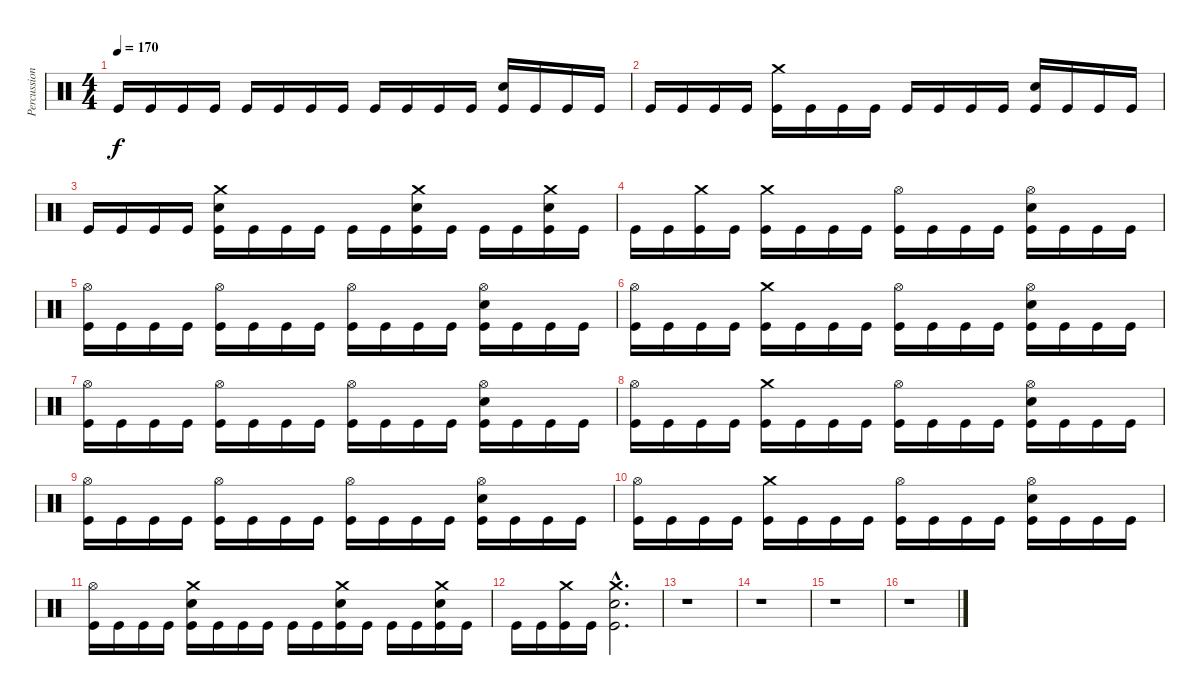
\track ("Percussion" "Percussion") {instrument percussion}
\staff {score}
\articulation defaults
\ts (4 4)
\tempo 170
\clef neutral
\ks c "Kick (hit)".16{dy f} "Kick (hit)".16 "Kick (hit)".16 "Kick (hit)".16 "Kick (hit)".16 "Kick (hit)".16 "Kick (hit)".16 "Kick (hit)".16 "Kick (hit)".16 "Kick (hit)".16 "Kick (hit)".16 "Kick (hit)".16
("Snare (hit) 2" "Kick (hit)").16 "Kick (hit)".16 "Kick (hit)".16 "Kick (hit)".16 |
"Kick (hit)".16 "Kick (hit)".16 "Kick (hit)".16 "Kick (hit)".16 ("Crash medium (hit)" "Kick (hit)").16 "Kick (hit)".16 "Kick (hit)".16 "Kick (hit)".16 "Kick (hit)".16 "Kick (hit)".16 "Kick (hit)".16 "Kick (hit)".16 ("Snare (hit) 2" "Kick (hit)").16 "Kick (hit)".16 "Kick (hit)".16 "Kick (hit)".16 |
"Kick (hit)".16 "Kick (hit)".16 "Kick (hit)".16 "Kick (hit)".16 ("Crash medium (hit)" "Snare (hit) 2" "Kick (hit)").16 "Kick (hit)".16 "Kick (hit)".16 "Kick (hit)".16 "Kick (hit)".16 "Kick (hit)".16 ("Crash medium (hit)" "Snare (hit) 2" "Kick (hit)").16 "Kick (hit)".16 "Kick (hit)".16 "Kick (hit)".16 ("Crash medium (hit)" "Snare (hit) 2" "Kick (hit)").16 "Kick (hit)".16 |
"Kick (hit)".16 "Kick (hit)".16 ("Crash medium (hit)" "Kick (hit)").16 "Kick (hit)".16 ("Crash medium (hit)" "Kick (hit)").16 "Kick (hit)".16 "Kick (hit)".16 "Kick (hit)".16 ("Hi-Hat (open)" "Kick (hit)").16 "Kick (hit)".16 "Kick (hit)".16 "Kick (hit)".16 ("Hi-Hat (open)" "Snare (hit) 2" "Kick (hit)").16 "Kick (hit)".16 "Kick (hit)".16 "Kick (hit)".16 |
("Hi-Hat (open)" "Kick (hit)").16 "Kick (hit)".16 "Kick (hit)".16 "Kick (hit)".16 ("Hi-Hat (open)" "Kick (hit)").16 "Kick (hit)".16 "Kick (hit)".16 "Kick (hit)".16 ("Hi-Hat (open)" "Kick (hit)").16 "Kick (hit)".16 "Kick (hit)".16 "Kick (hit)".16 ("Hi-Hat (open)" "Snare (hit) 2" "Kick (hit)").16 "Kick (hit)".16 "Kick (hit)".16 "Kick (hit)".16 |
("Hi-Hat (open)" "Kick (hit)").16 "Kick (hit)".16 "Kick (hit)".16 "Kick (hit)".16 ("Crash medium (hit)" "Kick (hit)").16 "Kick (hit)".16 "Kick (hit)".16 "Kick (hit)".16 ("Hi-Hat (open)" "Kick (hit)").16 "Kick (hit)".16 "Kick (hit)".16 "Kick (hit)".16 ("Hi-Hat (open)" "Snare (hit) 2" "Kick (hit)").16 "Kick (hit)".16 "Kick (hit)".16 "Kick (hit)".16 |
("Hi-Hat (open)" "Kick (hit)").16 "Kick (hit)".16 "Kick (hit)".16 "Kick (hit)".16 ("Hi-Hat (open)" "Kick (hit)").16 "Kick (hit)".16 "Kick (hit)".16 "Kick (hit)".16 ("Hi-Hat (open)" "Kick (hit)").16 "Kick (hit)".16 "Kick (hit)".16 "Kick (hit)".16 ("Hi-Hat (open)" "Snare (hit) 2" "Kick (hit)").16 "Kick (hit)".16 "Kick (hit)".16 "Kick (hit)".16 |
("Hi-Hat (open)" "Kick (hit)").16 "Kick (hit)".16 "Kick (hit)".16 "Kick (hit)".16 ("Crash medium (hit)" "Kick (hit)").16 "Kick (hit)".16 "Kick (hit)".16 "Kick (hit)".16 ("Hi-Hat (open)" "Kick (hit)").16 "Kick (hit)".16 "Kick (hit)".16 "Kick (hit)".16 ("Hi-Hat (open)" "Snare (hit) 2" "Kick (hit)").16 "Kick (hit)".16 "Kick (hit)".16 "Kick (hit)".16 |
("Hi-Hat (open)" "Kick (hit)").16 "Kick (hit)".16 "Kick (hit)".16 "Kick (hit)".16 ("Hi-Hat (open)" "Kick (hit)").16 "Kick (hit)".16 "Kick (hit)".16 "Kick (hit)".16 ("Hi-Hat (open)" "Kick (hit)").16 "Kick (hit)".16 "Kick (hit)".16 "Kick (hit)".16 ("Hi-Hat (open)" "Snare (hit) 2" "Kick (hit)").16 "Kick (hit)".16 "Kick (hit)".16 "Kick (hit)".16 |
("Hi-Hat (open)" "Kick (hit)").16 "Kick (hit)".16 "Kick (hit)".16 "Kick (hit)".16 ("Crash medium (hit)" "Kick (hit)").16 "Kick (hit)".16 "Kick (hit)".16 "Kick (hit)".16 ("Hi-Hat (open)" "Kick (hit)").16 "Kick (hit)".16 "Kick (hit)".16 "Kick (hit)".16 ("Hi-Hat (open)" "Snare (hit) 2" "Kick (hit)").16 "Kick (hit)".16 "Kick (hit)".16 "Kick (hit)".16 |
("Hi-Hat (open)" "Kick (hit)").16 "Kick (hit)".16 "Kick (hit)".16 "Kick (hit)".16 ("Crash medium (hit)" "Snare (hit) 2" "Kick (hit)").16 "Kick (hit)".16 "Kick (hit)".16 "Kick (hit)".16 "Kick (hit)".16 "Kick (hit)".16 ("Crash medium (hit)" "Snare (hit) 2" "Kick (hit)").16 "Kick (hit)".16 "Kick (hit)".16 "Kick (hit)".16 ("Crash medium (hit)" "Snare (hit) 2" "Kick (hit)").16 "Kick (hit)".16 |
"Kick (hit)".16 "Kick (hit)".16 ("Crash medium (hit)" "Kick (hit)").16 "Kick (hit)".16 ("Crash medium (hit)"{hac} "Snare (hit) 2"{hac} "Kick (hit)"{hac}).2{d} |
r.1 |
r.1 |
r.1 |
r.1
